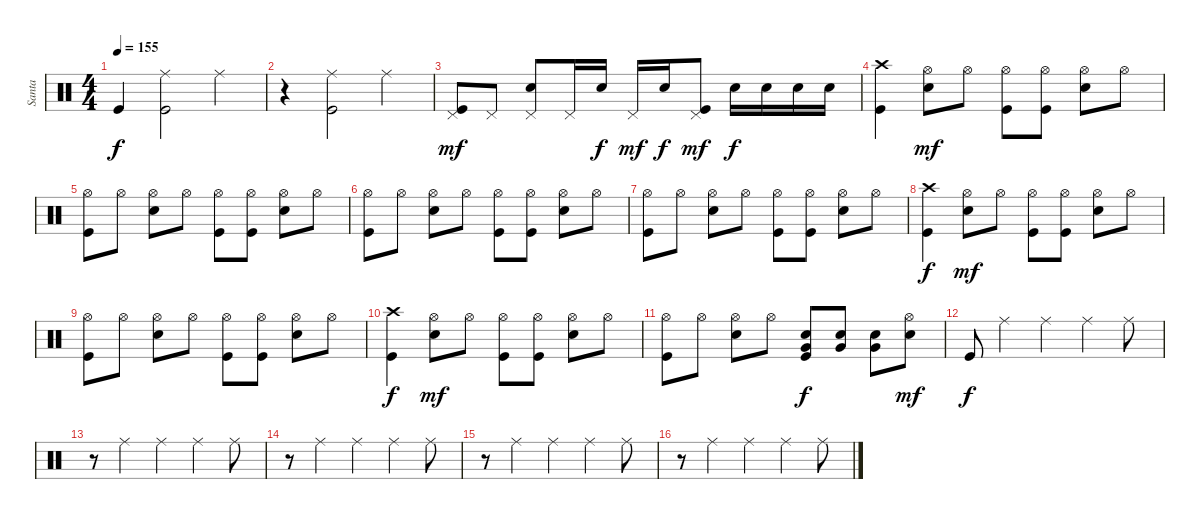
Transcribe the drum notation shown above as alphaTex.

\track ("Santa" "Santa") {instrument percussion}
\staff {score}
\articulation defaults
\ts (4 4)
\tempo 155
\clef neutral
\ks c "Kick (hit)".4{dy f}
("Kick (hit)" "Ride (middle)").2 "Ride (middle)".4 |
r.4 ("Ride (middle)" "Kick (hit)").2 "Ride (middle)".4 |
("Kick (hit)" "Pedal Hi-Hat (hit)").8{dy mf} "Pedal Hi-Hat (hit)".8 ("Pedal Hi-Hat (hit)" "Snare (hit) 2").8 "Pedal Hi-Hat (hit)".16 "Snare (hit) 2".16{dy f} "Pedal Hi-Hat (hit)".16{dy mf} "Snare (hit) 2".16{dy f} ("Pedal Hi-Hat (hit)" "Kick (hit)").8{dy mf} "Snare (hit) 2".16{dy f} "Snare (hit) 2".16 "Snare (hit) 2".16 "Snare (hit) 2".16 |
("Kick (hit)" "Crash high (hit)").4 ("Hi-Hat (open)" "Snare (hit) 2").8{dy mf} "Hi-Hat (open)".8 ("Kick (hit)" "Hi-Hat (open)").8 ("Kick (hit)" "Hi-Hat (open)").8 ("Hi-Hat (open)" "Snare (hit) 2").8 "Hi-Hat (open)".8 |
("Kick (hit)" "Hi-Hat (open)").8 "Hi-Hat (open)".8 ("Hi-Hat (open)" "Snare (hit) 2").8 "Hi-Hat (open)".8 ("Kick (hit)" "Hi-Hat (open)").8 ("Kick (hit)" "Hi-Hat (open)").8 ("Hi-Hat (open)" "Snare (hit) 2").8 "Hi-Hat (open)".8 |
("Kick (hit)" "Hi-Hat (open)").8 "Hi-Hat (open)".8 ("Hi-Hat (open)" "Snare (hit) 2").8 "Hi-Hat (open)".8 ("Kick (hit)" "Hi-Hat (open)").8 ("Kick (hit)" "Hi-Hat (open)").8 ("Hi-Hat (open)" "Snare (hit) 2").8 "Hi-Hat (open)".8 |
("Kick (hit)" "Hi-Hat (open)").8 "Hi-Hat (open)".8 ("Hi-Hat (open)" "Snare (hit) 2").8 "Hi-Hat (open)".8 ("Kick (hit)" "Hi-Hat (open)").8 ("Kick (hit)" "Hi-Hat (open)").8 ("Hi-Hat (open)" "Snare (hit) 2").8 "Hi-Hat (open)".8 |
("Kick (hit)" "Crash high (hit)").4{dy f} ("Hi-Hat (open)" "Snare (hit) 2").8{dy mf} "Hi-Hat (open)".8 ("Kick (hit)" "Hi-Hat (open)").8 ("Kick (hit)" "Hi-Hat (open)").8 ("Hi-Hat (open)" "Snare (hit) 2").8 "Hi-Hat (open)".8 |
("Kick (hit)" "Hi-Hat (open)").8 "Hi-Hat (open)".8 ("Hi-Hat (open)" "Snare (hit) 2").8 "Hi-Hat (open)".8 ("Kick (hit)" "Hi-Hat (open)").8 ("Kick (hit)" "Hi-Hat (open)").8 ("Hi-Hat (open)" "Snare (hit) 2").8 "Hi-Hat (open)".8 |
("Kick (hit)" "Crash high (hit)").4{dy f} ("Hi-Hat (open)" "Snare (hit) 2").8{dy mf} "Hi-Hat (open)".8 ("Kick (hit)" "Hi-Hat (open)").8 ("Kick (hit)" "Hi-Hat (open)").8 ("Hi-Hat (open)" "Snare (hit) 2").8 "Hi-Hat (open)".8 |
("Kick (hit)" "Hi-Hat (open)").8 "Hi-Hat (open)".8 ("Snare (hit) 2" "Hi-Hat (open)").8 "Hi-Hat (open)".8 ("Kick (hit)" "Snare (hit) 2" "Very Low Tom (hit)").8{dy f} ("Snare (hit) 2" "Very Low Tom (hit)").8 ("Snare (hit) 2" "Very Low Tom (hit)").8 ("Snare (hit) 2" "Hi-Hat (open)").8{dy mf} |
"Kick (hit)".8{dy f} "Ride (middle)".4 "Ride (middle)".4 "Ride (middle)".4 "Ride (middle)".8 |
r.8 "Ride (middle)".4 "Ride (middle)".4 "Ride (middle)".4 "Ride (middle)".8 |
r.8 "Ride (middle)".4 "Ride (middle)".4 "Ride (middle)".4 "Ride (middle)".8 |
r.8 "Ride (middle)".4 "Ride (middle)".4 "Ride (middle)".4 "Ride (middle)".8 |
r.8 "Ride (middle)".4 "Ride (middle)".4 "Ride (middle)".4 "Ride (middle)".8
